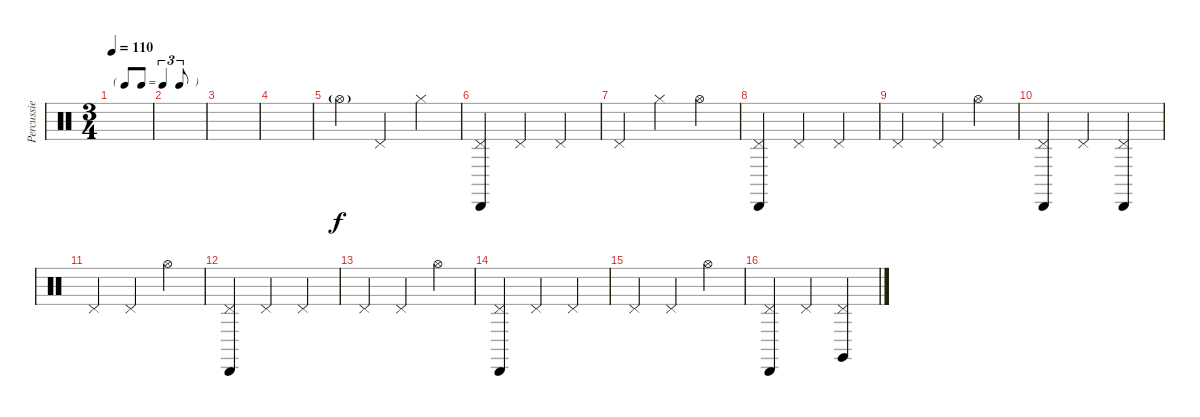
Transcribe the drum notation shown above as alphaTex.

\track ("Percussie" "Percussie") {instrument percussion}
\staff {score}
\articulation defaults
\ts (3 4)
\tf triplet8th
\tempo 110
\clef neutral
\ks c
|
|
|
|
"Hi-Hat (open)"{g}.4 "Pedal Hi-Hat (hit)".4{dy f} "Hi-Hat (closed)".4 |
("Cabasa (hit)" "Pedal Hi-Hat (hit)").4 "Pedal Hi-Hat (hit)".4 "Pedal Hi-Hat (hit)".4 |
"Pedal Hi-Hat (hit)".4 "Hi-Hat (closed)".4 "Hi-Hat (open)".4 |
("Cabasa (hit)" "Pedal Hi-Hat (hit)").4 "Pedal Hi-Hat (hit)".4 "Pedal Hi-Hat (hit)".4 |
"Pedal Hi-Hat (hit)".4 "Pedal Hi-Hat (hit)".4 "Hi-Hat (open)".4 |
("Cabasa (hit)" "Pedal Hi-Hat (hit)").4 "Pedal Hi-Hat (hit)".4 ("Cabasa (hit)" "Pedal Hi-Hat (hit)").4 |
"Pedal Hi-Hat (hit)".4 "Pedal Hi-Hat (hit)".4 "Hi-Hat (open)".4 |
("Cabasa (hit)" "Pedal Hi-Hat (hit)").4 "Pedal Hi-Hat (hit)".4 "Pedal Hi-Hat (hit)".4 |
"Pedal Hi-Hat (hit)".4 "Pedal Hi-Hat (hit)".4 "Hi-Hat (open)".4 |
("Cabasa (hit)" "Pedal Hi-Hat (hit)").4 "Pedal Hi-Hat (hit)".4 "Pedal Hi-Hat (hit)".4 |
"Pedal Hi-Hat (hit)".4 "Pedal Hi-Hat (hit)".4 "Hi-Hat (open)".4 |
("Cabasa (hit)" "Pedal Hi-Hat (hit)").4 "Pedal Hi-Hat (hit)".4 ("Claves (hit)" "Pedal Hi-Hat (hit)").4
